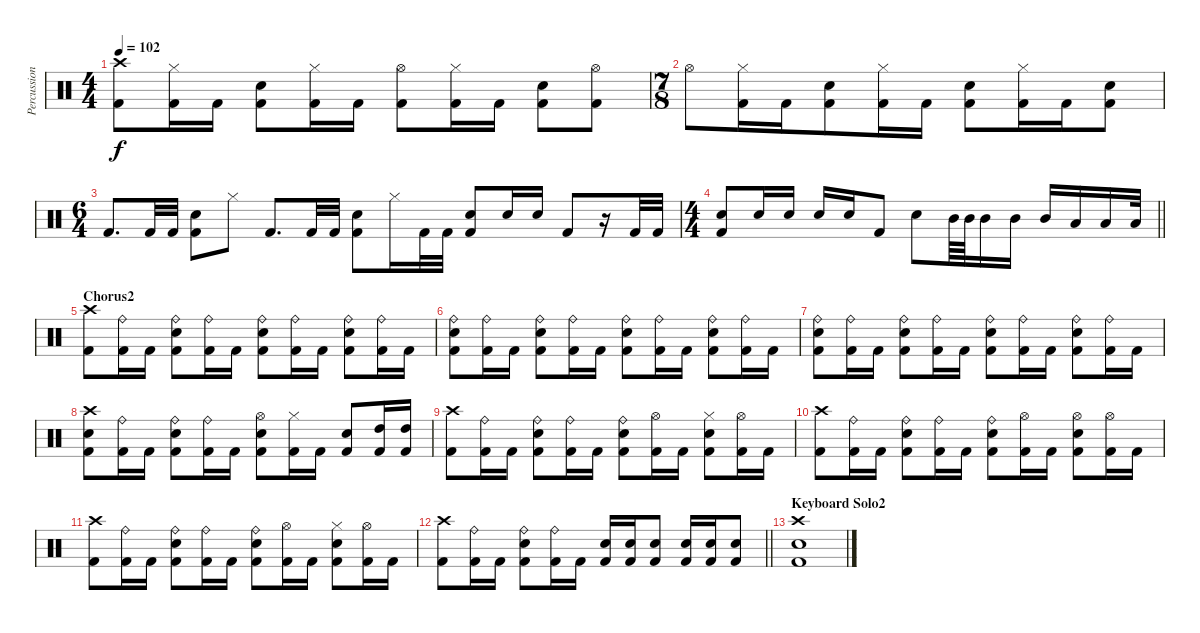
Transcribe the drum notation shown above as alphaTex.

\track ("Percussion" "Percussion") {instrument percussion}
\staff {score}
\articulation defaults
\ts (4 4)
\tempo 102
\clef neutral
\ks c
("Crash high (hit)" "Kick (hit) 2").8{dy f} ("Hi-Hat (closed)" "Kick (hit) 2").16 "Kick (hit) 2".16 ("Snare (hit) 2" "Kick (hit) 2").8 ("Hi-Hat (closed)" "Kick (hit) 2").16 "Kick (hit) 2".16 ("Hi-Hat (open)" "Kick (hit) 2").8 ("Hi-Hat (closed)" "Kick (hit) 2").16 "Kick (hit) 2".16 ("Snare (hit) 2" "Kick (hit) 2").8 ("Hi-Hat (open)" "Kick (hit) 2").8 |
\ts (7 8)
"Hi-Hat (open)".8 ("Hi-Hat (closed)" "Kick (hit) 2").16 "Kick (hit) 2".16 ("Snare (hit) 2" "Kick (hit) 2").8 ("Hi-Hat (closed)" "Kick (hit) 2").16 "Kick (hit) 2".16 ("Snare (hit) 2" "Kick (hit) 2").8 ("Hi-Hat (closed)" "Kick (hit) 2").16 "Kick (hit) 2".16 ("Snare (hit) 2" "Kick (hit) 2").8 |
\ts (6 4)
"Kick (hit) 2".8{d} "Kick (hit) 2".32 "Kick (hit) 2".32 ("Snare (hit) 2" "Kick (hit) 2").8 "Hi-Hat (closed)".8 "Kick (hit) 2".8{d} "Kick (hit) 2".32 "Kick (hit) 2".32 ("Snare (hit) 2" "Kick (hit) 2").8 "Hi-Hat (closed)".16 "Kick (hit) 2".32 "Kick (hit) 2".32 ("Snare (hit) 2" "Kick (hit) 2").8 "Snare (hit) 2".16 "Snare (hit) 2".16 "Kick (hit) 2".8 r.16 "Kick (hit) 2".32 "Kick (hit) 2".32 |
\ts (4 4)
\barLineRight lightlight
("Snare (hit) 2" "Kick (hit) 2").8 "Snare (hit) 2".16 "Snare (hit) 2".16 "Snare (hit) 2".16 "Snare (hit) 2".16 "Kick (hit) 2".8 "Snare (hit) 2".8 "Mid Tom (hit)".64 "Mid Tom (hit)".64 "Mid Tom (hit)".16 "Mid Tom (hit)".16 "Mid Tom (hit)".16 "Low Tom (hit)".16 "Low Tom (hit)".16 "Low Tom (hit)".32 |
\section ("" "Chorus2")
("Crash high (hit)" "Kick (hit) 2").8 ("Ride (bell)" "Kick (hit) 2").16 "Kick (hit) 2".16 ("Ride (bell)" "Snare (hit) 2" "Kick (hit) 2").8 ("Ride (bell)" "Kick (hit) 2").16 "Kick (hit) 2".16 ("Ride (bell)" "Snare (hit) 2" "Kick (hit) 2").8 ("Ride (bell)" "Kick (hit) 2").16 "Kick (hit) 2".16 ("Ride (bell)" "Snare (hit) 2" "Kick (hit) 2").8 ("Ride (bell)" "Kick (hit) 2").16 "Kick (hit) 2".16 |
("Ride (bell)" "Snare (hit) 2" "Kick (hit) 2").8 ("Ride (bell)" "Kick (hit) 2").16 "Kick (hit) 2".16 ("Ride (bell)" "Snare (hit) 2" "Kick (hit) 2").8 ("Ride (bell)" "Kick (hit) 2").16 "Kick (hit) 2".16 ("Ride (bell)" "Snare (hit) 2" "Kick (hit) 2").8 ("Ride (bell)" "Kick (hit) 2").16 "Kick (hit) 2".16 ("Ride (bell)" "Snare (hit) 2" "Kick (hit) 2").8 ("Ride (bell)" "Kick (hit) 2").16 "Kick (hit) 2".16 |
("Ride (bell)" "Snare (hit) 2" "Kick (hit) 2").8 ("Ride (bell)" "Kick (hit) 2").16 "Kick (hit) 2".16 ("Ride (bell)" "Snare (hit) 2" "Kick (hit) 2").8 ("Ride (bell)" "Kick (hit) 2").16 "Kick (hit) 2".16 ("Ride (bell)" "Snare (hit) 2" "Kick (hit) 2").8 ("Ride (bell)" "Kick (hit) 2").16 "Kick (hit) 2".16 ("Ride (bell)" "Snare (hit) 2" "Kick (hit) 2").8 ("Ride (bell)" "Kick (hit) 2").16 "Kick (hit) 2".16 |
("Crash high (hit)" "Snare (hit) 2" "Kick (hit) 2").8 ("Ride (bell)" "Kick (hit) 2").16 "Kick (hit) 2".16 ("Ride (bell)" "Snare (hit) 2" "Kick (hit) 2").8 ("Ride (bell)" "Kick (hit) 2").16 "Kick (hit) 2".16 ("Hi-Hat (open)" "Snare (hit) 2" "Kick (hit) 2").8 ("Hi-Hat (closed)" "Kick (hit) 2").16 "Kick (hit) 2".16 ("Snare (hit) 2" "Kick (hit) 2").8 ("High Tom (hit)" "Kick (hit) 2").16 ("High Tom (hit)" "Kick (hit) 2").16 |
("Crash high (hit)" "Kick (hit) 2").8 ("Ride (bell)" "Kick (hit) 2").16 "Kick (hit) 2".16 ("Ride (bell)" "Snare (hit) 2" "Kick (hit) 2").8 ("Ride (bell)" "Kick (hit) 2").16 "Kick (hit) 2".16 ("Ride (bell)" "Snare (hit) 2" "Kick (hit) 2").8 ("Hi-Hat (open)" "Kick (hit) 2").16 "Kick (hit) 2".16 ("Hi-Hat (closed)" "Snare (hit) 2" "Kick (hit) 2").8 ("Hi-Hat (open)" "Kick (hit) 2").16 "Kick (hit) 2".16 |
("Crash high (hit)" "Kick (hit) 2").8 ("Ride (bell)" "Kick (hit) 2").16 "Kick (hit) 2".16 ("Ride (bell)" "Snare (hit) 2" "Kick (hit) 2").8 ("Ride (bell)" "Kick (hit) 2").16 "Kick (hit) 2".16 ("Ride (bell)" "Snare (hit) 2" "Kick (hit) 2").8 ("Hi-Hat (open)" "Kick (hit) 2").16 "Kick (hit) 2".16 ("Hi-Hat (open)" "Snare (hit) 2" "Kick (hit) 2").8 ("Hi-Hat (open)" "Kick (hit) 2").16 "Kick (hit) 2".16 |
("Crash high (hit)" "Kick (hit) 2").8 ("Ride (bell)" "Kick (hit) 2").16 "Kick (hit) 2".16 ("Ride (bell)" "Snare (hit) 2" "Kick (hit) 2").8 ("Ride (bell)" "Kick (hit) 2").16 "Kick (hit) 2".16 ("Ride (bell)" "Snare (hit) 2" "Kick (hit) 2").8 ("Hi-Hat (open)" "Kick (hit) 2").16 "Kick (hit) 2".16 ("Hi-Hat (closed)" "Snare (hit) 2" "Kick (hit) 2").8 ("Hi-Hat (open)" "Kick (hit) 2").16 "Kick (hit) 2".16 |
\barLineRight lightlight
("Crash high (hit)" "Kick (hit) 2").8 ("Ride (bell)" "Kick (hit) 2").16 "Kick (hit) 2".16 ("Ride (bell)" "Snare (hit) 2" "Kick (hit) 2").8 ("Ride (bell)" "Kick (hit) 2").16 "Kick (hit) 2".16 ("Snare (hit) 2" "Kick (hit) 2").16 ("Snare (hit) 2" "Kick (hit) 2").16 ("Snare (hit) 2" "Kick (hit) 2").8 ("Snare (hit) 2" "Kick (hit) 2").16 ("Snare (hit) 2" "Kick (hit) 2").16 ("Snare (hit) 2" "Kick (hit) 2").8 |
\section ("" "Keyboard Solo2")
("Crash high (hit)" "Snare (hit) 2" "Kick (hit) 2").1
